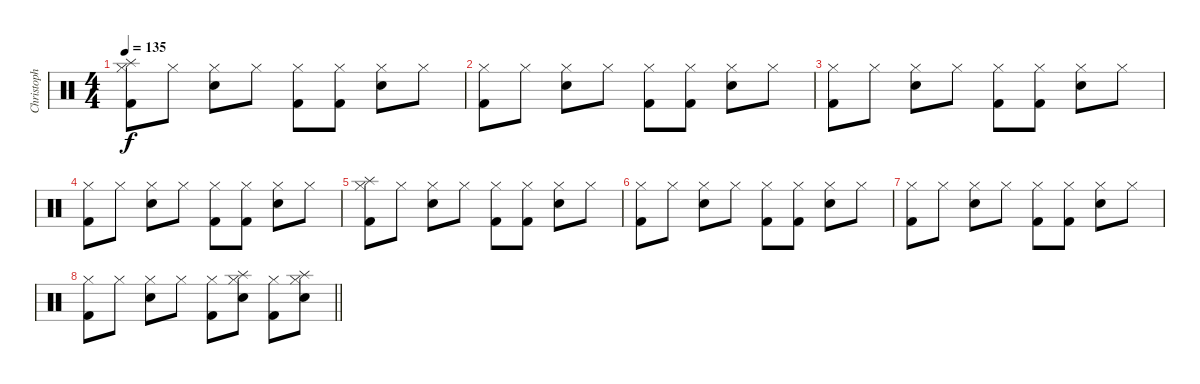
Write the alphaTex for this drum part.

\track ("Christoph Schneider" "Christoph ") {instrument percussion}
\staff {score}
\articulation defaults
\ts (4 4)
\tempo 135
\clef neutral
\ks c
("Splash (hit)" "Hi-Hat (closed)" "Kick (hit) 2").8{dy f} "Hi-Hat (closed)".8 ("Hi-Hat (closed)" "Electric Snare (hit)").8 "Hi-Hat (closed)".8 ("Hi-Hat (closed)" "Kick (hit) 2").8 ("Hi-Hat (closed)" "Kick (hit) 2").8 ("Hi-Hat (closed)" "Electric Snare (hit)").8 "Hi-Hat (closed)".8 |
("Hi-Hat (closed)" "Kick (hit) 2").8 "Hi-Hat (closed)".8 ("Hi-Hat (closed)" "Electric Snare (hit)").8 "Hi-Hat (closed)".8 ("Hi-Hat (closed)" "Kick (hit) 2").8 ("Hi-Hat (closed)" "Kick (hit) 2").8 ("Hi-Hat (closed)" "Electric Snare (hit)").8 "Hi-Hat (closed)".8 |
("Hi-Hat (closed)" "Kick (hit) 2").8 "Hi-Hat (closed)".8 ("Hi-Hat (closed)" "Electric Snare (hit)").8 "Hi-Hat (closed)".8 ("Hi-Hat (closed)" "Kick (hit) 2").8 ("Hi-Hat (closed)" "Kick (hit) 2").8 ("Hi-Hat (closed)" "Electric Snare (hit)").8 "Hi-Hat (closed)".8 |
("Hi-Hat (closed)" "Kick (hit) 2").8 "Hi-Hat (closed)".8 ("Hi-Hat (closed)" "Electric Snare (hit)").8 "Hi-Hat (closed)".8 ("Hi-Hat (closed)" "Kick (hit) 2").8 ("Hi-Hat (closed)" "Kick (hit) 2").8 ("Hi-Hat (closed)" "Electric Snare (hit)").8 "Hi-Hat (closed)".8 |
("Splash (hit)" "Hi-Hat (closed)" "Kick (hit) 2").8 "Hi-Hat (closed)".8 ("Hi-Hat (closed)" "Electric Snare (hit)").8 "Hi-Hat (closed)".8 ("Hi-Hat (closed)" "Kick (hit) 2").8 ("Hi-Hat (closed)" "Kick (hit) 2").8 ("Hi-Hat (closed)" "Electric Snare (hit)").8 "Hi-Hat (closed)".8 |
("Hi-Hat (closed)" "Kick (hit) 2").8 "Hi-Hat (closed)".8 ("Hi-Hat (closed)" "Electric Snare (hit)").8 "Hi-Hat (closed)".8 ("Hi-Hat (closed)" "Kick (hit) 2").8 ("Hi-Hat (closed)" "Kick (hit) 2").8 ("Hi-Hat (closed)" "Electric Snare (hit)").8 "Hi-Hat (closed)".8 |
("Hi-Hat (closed)" "Kick (hit) 2").8 "Hi-Hat (closed)".8 ("Hi-Hat (closed)" "Electric Snare (hit)").8 "Hi-Hat (closed)".8 ("Hi-Hat (closed)" "Kick (hit) 2").8 ("Hi-Hat (closed)" "Kick (hit) 2").8 ("Hi-Hat (closed)" "Electric Snare (hit)").8 "Hi-Hat (closed)".8 |
\barLineRight lightlight
("Hi-Hat (closed)" "Kick (hit) 2").8 "Hi-Hat (closed)".8 ("Hi-Hat (closed)" "Electric Snare (hit)").8 "Hi-Hat (closed)".8 ("Hi-Hat (closed)" "Kick (hit) 2").8 ("Splash (hit)" "Hi-Hat (closed)" "Electric Snare (hit)").8 ("Hi-Hat (closed)" "Kick (hit) 2").8 ("Splash (hit)" "Hi-Hat (closed)" "Electric Snare (hit)").8
